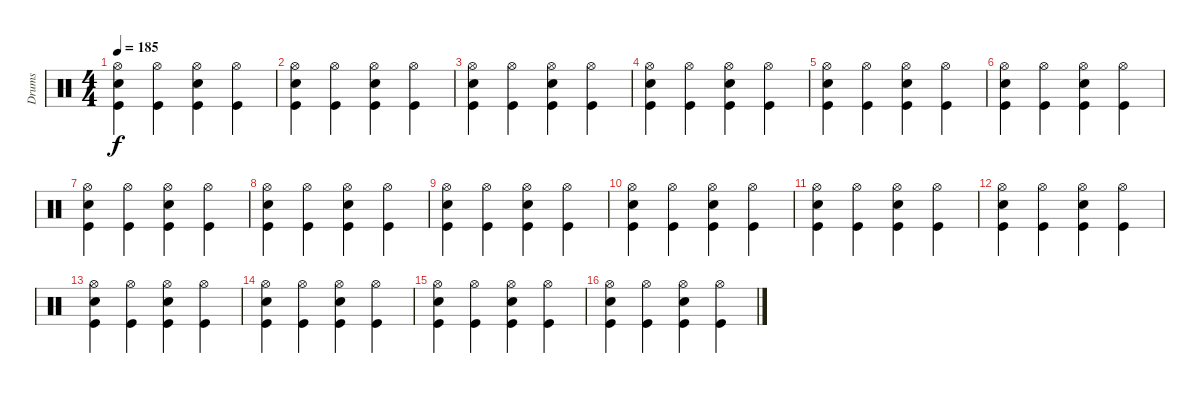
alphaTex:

\track ("Drums" "Drums") {instrument percussion}
\staff {score}
\articulation defaults
\ts (4 4)
\tempo 185
\clef neutral
\ks c
("Hi-Hat (open)" "Kick (hit)" "Snare (hit) 2").4{dy f} ("Hi-Hat (open)" "Kick (hit)").4 ("Hi-Hat (open)" "Kick (hit)" "Snare (hit) 2").4 ("Hi-Hat (open)" "Kick (hit)").4 |
("Hi-Hat (open)" "Kick (hit)" "Snare (hit) 2").4 ("Hi-Hat (open)" "Kick (hit)").4 ("Hi-Hat (open)" "Kick (hit)" "Snare (hit) 2").4 ("Hi-Hat (open)" "Kick (hit)").4 |
("Hi-Hat (open)" "Kick (hit)" "Snare (hit) 2").4 ("Hi-Hat (open)" "Kick (hit)").4 ("Hi-Hat (open)" "Kick (hit)" "Snare (hit) 2").4 ("Hi-Hat (open)" "Kick (hit)").4 |
("Hi-Hat (open)" "Kick (hit)" "Snare (hit) 2").4 ("Hi-Hat (open)" "Kick (hit)").4 ("Hi-Hat (open)" "Kick (hit)" "Snare (hit) 2").4 ("Hi-Hat (open)" "Kick (hit)").4 |
("Hi-Hat (open)" "Kick (hit)" "Snare (hit) 2").4 ("Hi-Hat (open)" "Kick (hit)").4 ("Hi-Hat (open)" "Kick (hit)" "Snare (hit) 2").4 ("Hi-Hat (open)" "Kick (hit)").4 |
("Hi-Hat (open)" "Kick (hit)" "Snare (hit) 2").4 ("Hi-Hat (open)" "Kick (hit)").4 ("Hi-Hat (open)" "Kick (hit)" "Snare (hit) 2").4 ("Hi-Hat (open)" "Kick (hit)").4 |
("Hi-Hat (open)" "Kick (hit)" "Snare (hit) 2").4 ("Hi-Hat (open)" "Kick (hit)").4 ("Hi-Hat (open)" "Kick (hit)" "Snare (hit) 2").4 ("Hi-Hat (open)" "Kick (hit)").4 |
("Hi-Hat (open)" "Kick (hit)" "Snare (hit) 2").4 ("Hi-Hat (open)" "Kick (hit)").4 ("Hi-Hat (open)" "Kick (hit)" "Snare (hit) 2").4 ("Hi-Hat (open)" "Kick (hit)").4 |
("Hi-Hat (open)" "Kick (hit)" "Snare (hit) 2").4 ("Hi-Hat (open)" "Kick (hit)").4 ("Hi-Hat (open)" "Kick (hit)" "Snare (hit) 2").4 ("Hi-Hat (open)" "Kick (hit)").4 |
("Hi-Hat (open)" "Kick (hit)" "Snare (hit) 2").4 ("Hi-Hat (open)" "Kick (hit)").4 ("Hi-Hat (open)" "Kick (hit)" "Snare (hit) 2").4 ("Hi-Hat (open)" "Kick (hit)").4 |
("Hi-Hat (open)" "Kick (hit)" "Snare (hit) 2").4 ("Hi-Hat (open)" "Kick (hit)").4 ("Hi-Hat (open)" "Kick (hit)" "Snare (hit) 2").4 ("Hi-Hat (open)" "Kick (hit)").4 |
("Hi-Hat (open)" "Kick (hit)" "Snare (hit) 2").4 ("Hi-Hat (open)" "Kick (hit)").4 ("Hi-Hat (open)" "Kick (hit)" "Snare (hit) 2").4 ("Hi-Hat (open)" "Kick (hit)").4 |
("Hi-Hat (open)" "Kick (hit)" "Snare (hit) 2").4 ("Hi-Hat (open)" "Kick (hit)").4 ("Hi-Hat (open)" "Kick (hit)" "Snare (hit) 2").4 ("Hi-Hat (open)" "Kick (hit)").4 |
("Hi-Hat (open)" "Kick (hit)" "Snare (hit) 2").4 ("Hi-Hat (open)" "Kick (hit)").4 ("Hi-Hat (open)" "Kick (hit)" "Snare (hit) 2").4 ("Hi-Hat (open)" "Kick (hit)").4 |
("Hi-Hat (open)" "Kick (hit)" "Snare (hit) 2").4 ("Hi-Hat (open)" "Kick (hit)").4 ("Hi-Hat (open)" "Kick (hit)" "Snare (hit) 2").4 ("Hi-Hat (open)" "Kick (hit)").4 |
("Hi-Hat (open)" "Kick (hit)" "Snare (hit) 2").4 ("Hi-Hat (open)" "Kick (hit)").4 ("Hi-Hat (open)" "Kick (hit)" "Snare (hit) 2").4 ("Hi-Hat (open)" "Kick (hit)").4
